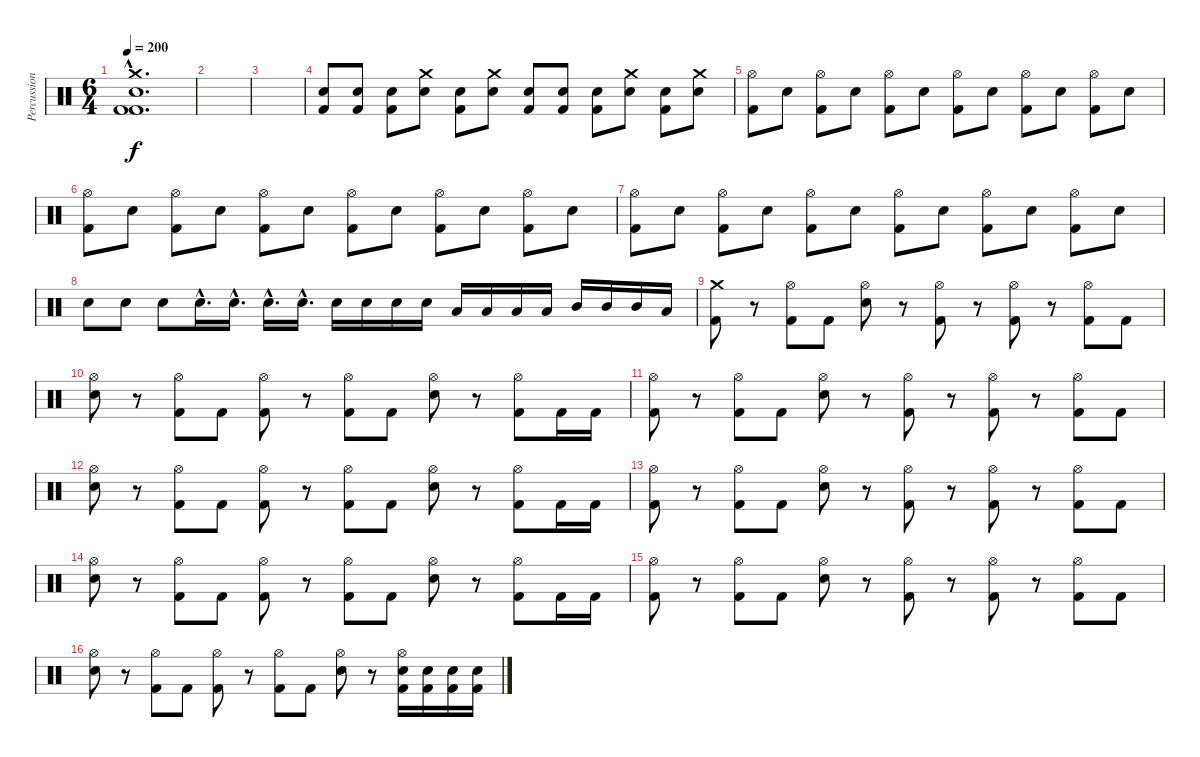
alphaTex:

\track ("Percussion" "Percussion") {instrument percussion}
\staff {score}
\articulation defaults
\ts (6 4)
\tempo 200
\clef neutral
\ks c
("Crash medium (hit)"{hac} "Kick (hit) 2"{hac} "Kick (hit) 2"{hac} "Electric Snare (hit)"{hac}).1{d dy f} |
|
|
("Electric Snare (hit)" "Kick (hit) 2").8 ("Electric Snare (hit)" "Kick (hit) 2").8 ("Electric Snare (hit)" "Kick (hit) 2").8 ("Crash medium (hit)" "Electric Snare (hit)").8 ("Electric Snare (hit)" "Kick (hit) 2").8 ("Crash medium (hit)" "Electric Snare (hit)").8 ("Electric Snare (hit)" "Kick (hit) 2").8 ("Electric Snare (hit)" "Kick (hit) 2").8 ("Electric Snare (hit)" "Kick (hit) 2").8 ("Crash medium (hit)" "Electric Snare (hit)").8 ("Electric Snare (hit)" "Kick (hit) 2").8 ("Crash medium (hit)" "Electric Snare (hit)").8 |
("Hi-Hat (open)" "Kick (hit) 2").8 "Electric Snare (hit)".8 ("Hi-Hat (open)" "Kick (hit) 2").8 "Electric Snare (hit)".8 ("Hi-Hat (open)" "Kick (hit) 2").8 "Electric Snare (hit)".8 ("Hi-Hat (open)" "Kick (hit) 2").8 "Electric Snare (hit)".8 ("Hi-Hat (open)" "Kick (hit) 2").8 "Electric Snare (hit)".8 ("Hi-Hat (open)" "Kick (hit) 2").8 "Electric Snare (hit)".8 |
("Hi-Hat (open)" "Kick (hit) 2").8 "Electric Snare (hit)".8 ("Hi-Hat (open)" "Kick (hit) 2").8 "Electric Snare (hit)".8 ("Hi-Hat (open)" "Kick (hit) 2").8 "Electric Snare (hit)".8 ("Hi-Hat (open)" "Kick (hit) 2").8 "Electric Snare (hit)".8 ("Hi-Hat (open)" "Kick (hit) 2").8 "Electric Snare (hit)".8 ("Hi-Hat (open)" "Kick (hit) 2").8 "Electric Snare (hit)".8 |
("Hi-Hat (open)" "Kick (hit) 2").8 "Electric Snare (hit)".8 ("Hi-Hat (open)" "Kick (hit) 2").8 "Electric Snare (hit)".8 ("Hi-Hat (open)" "Kick (hit) 2").8 "Electric Snare (hit)".8 ("Hi-Hat (open)" "Kick (hit) 2").8 "Electric Snare (hit)".8 ("Hi-Hat (open)" "Kick (hit) 2").8 "Electric Snare (hit)".8 ("Hi-Hat (open)" "Kick (hit) 2").8 "Electric Snare (hit)".8 |
"Electric Snare (hit)".8 "Electric Snare (hit)".8 "Electric Snare (hit)".8 "Electric Snare (hit)"{hac}.16{d} "Electric Snare (hit)"{hac}.16{d} "Electric Snare (hit)"{hac}.16{d} "Electric Snare (hit)"{hac}.16{d} "Electric Snare (hit)".16 "Electric Snare (hit)".16 "Electric Snare (hit)".16 "Electric Snare (hit)".16 "Low Tom (hit)".16 "Low Tom (hit)".16 "Low Tom (hit)".16 "Low Tom (hit)".16 "Mid Tom (hit)".16 "Mid Tom (hit)".16 "Mid Tom (hit)".16 "Low Floor Tom (hit)".16 |
("Crash medium (hit)" "Kick (hit) 2").8 r.8 ("Hi-Hat (open)" "Kick (hit) 2").8 "Kick (hit) 2".8 ("Hi-Hat (open)" "Electric Snare (hit)").8 r.8 ("Hi-Hat (open)" "Kick (hit) 2").8 r.8 ("Hi-Hat (open)" "Kick (hit) 2").8 r.8 ("Hi-Hat (open)" "Kick (hit) 2").8 "Kick (hit) 2".8 |
("Hi-Hat (open)" "Electric Snare (hit)").8 r.8 ("Hi-Hat (open)" "Kick (hit) 2").8 "Kick (hit) 2".8 ("Hi-Hat (open)" "Kick (hit) 2").8 r.8 ("Hi-Hat (open)" "Kick (hit) 2").8 "Kick (hit) 2".8 ("Hi-Hat (open)" "Electric Snare (hit)").8 r.8 ("Hi-Hat (open)" "Kick (hit) 2").8 "Kick (hit) 2".16 "Kick (hit) 2".16 |
("Hi-Hat (open)" "Kick (hit) 2").8 r.8 ("Hi-Hat (open)" "Kick (hit) 2").8 "Kick (hit) 2".8 ("Hi-Hat (open)" "Electric Snare (hit)").8 r.8 ("Hi-Hat (open)" "Kick (hit) 2").8 r.8 ("Hi-Hat (open)" "Kick (hit) 2").8 r.8 ("Hi-Hat (open)" "Kick (hit) 2").8 "Kick (hit) 2".8 |
("Hi-Hat (open)" "Electric Snare (hit)").8 r.8 ("Hi-Hat (open)" "Kick (hit) 2").8 "Kick (hit) 2".8 ("Hi-Hat (open)" "Kick (hit) 2").8 r.8 ("Hi-Hat (open)" "Kick (hit) 2").8 "Kick (hit) 2".8 ("Hi-Hat (open)" "Electric Snare (hit)").8 r.8 ("Hi-Hat (open)" "Kick (hit) 2").8 "Kick (hit) 2".16 "Kick (hit) 2".16 |
("Hi-Hat (open)" "Kick (hit) 2").8 r.8 ("Hi-Hat (open)" "Kick (hit) 2").8 "Kick (hit) 2".8 ("Hi-Hat (open)" "Electric Snare (hit)").8 r.8 ("Hi-Hat (open)" "Kick (hit) 2").8 r.8 ("Hi-Hat (open)" "Kick (hit) 2").8 r.8 ("Hi-Hat (open)" "Kick (hit) 2").8 "Kick (hit) 2".8 |
("Hi-Hat (open)" "Electric Snare (hit)").8 r.8 ("Hi-Hat (open)" "Kick (hit) 2").8 "Kick (hit) 2".8 ("Hi-Hat (open)" "Kick (hit) 2").8 r.8 ("Hi-Hat (open)" "Kick (hit) 2").8 "Kick (hit) 2".8 ("Hi-Hat (open)" "Electric Snare (hit)").8 r.8 ("Hi-Hat (open)" "Kick (hit) 2").8 "Kick (hit) 2".16 "Kick (hit) 2".16 |
("Hi-Hat (open)" "Kick (hit) 2").8 r.8 ("Hi-Hat (open)" "Kick (hit) 2").8 "Kick (hit) 2".8 ("Hi-Hat (open)" "Electric Snare (hit)").8 r.8 ("Hi-Hat (open)" "Kick (hit) 2").8 r.8 ("Hi-Hat (open)" "Kick (hit) 2").8 r.8 ("Hi-Hat (open)" "Kick (hit) 2").8 "Kick (hit) 2".8 |
("Hi-Hat (open)" "Electric Snare (hit)").8 r.8 ("Hi-Hat (open)" "Kick (hit) 2").8 "Kick (hit) 2".8 ("Hi-Hat (open)" "Kick (hit) 2").8 r.8 ("Hi-Hat (open)" "Kick (hit) 2").8 "Kick (hit) 2".8 ("Hi-Hat (open)" "Electric Snare (hit)").8 r.8 ("Hi-Hat (open)" "Electric Snare (hit)" "Kick (hit) 2").16 ("Electric Snare (hit)" "Kick (hit) 2").16 ("Electric Snare (hit)" "Kick (hit) 2").16 ("Electric Snare (hit)" "Kick (hit) 2").16
